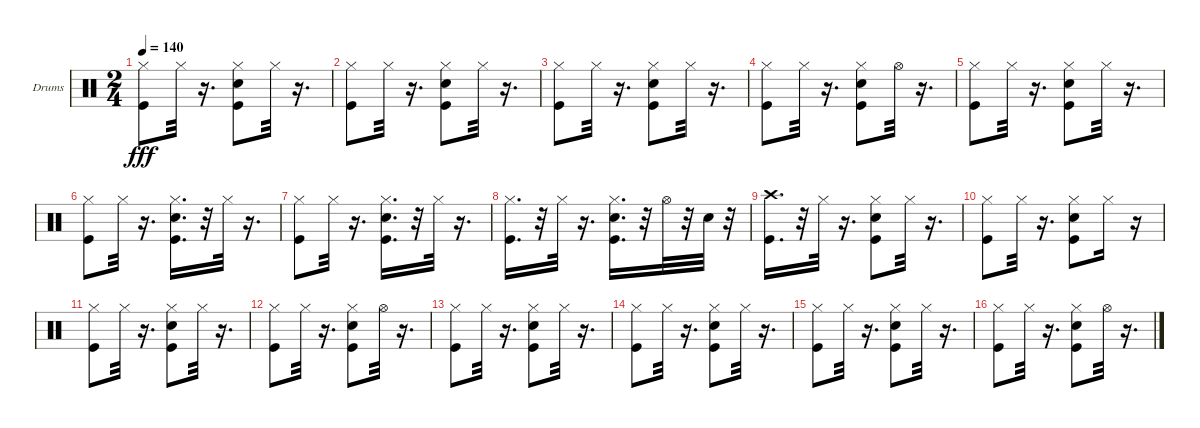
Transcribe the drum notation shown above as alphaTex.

\bracketExtendMode groupsimilarinstruments
\firstSystemTrackNameOrientation horizontal
\otherSystemsTrackNameOrientation horizontal
\track ("Ударные" "Drums") {instrument percussion}
\staff {score}
\articulation defaults
\ts (2 4)
\tempo 140
\clef neutral
\ks c
("Kick (hit)" "Hi-Hat (closed)").8{dy fff} "Hi-Hat (closed)".32 r.16{d} ("Snare (hit) 2" "Kick (hit)" "Hi-Hat (closed)").8 "Hi-Hat (closed)".32 r.16{d} |
("Kick (hit)" "Hi-Hat (closed)").8 "Hi-Hat (closed)".32 r.16{d} ("Snare (hit) 2" "Kick (hit)" "Hi-Hat (closed)").8 "Hi-Hat (closed)".32 r.16{d} |
("Kick (hit)" "Hi-Hat (closed)").8 "Hi-Hat (closed)".32 r.16{d} ("Hi-Hat (closed)" "Snare (hit) 2" "Kick (hit)").8 "Hi-Hat (closed)".32 r.16{d} |
("Kick (hit)" "Hi-Hat (closed)").8 "Hi-Hat (closed)".32 r.16{d} ("Snare (hit) 2" "Kick (hit)" "Hi-Hat (closed)").8 "Hi-Hat (open)".32 r.16{d} |
("Kick (hit)" "Hi-Hat (closed)").8 "Hi-Hat (closed)".32 r.16{d} ("Kick (hit)" "Hi-Hat (closed)" "Snare (hit) 2").8 "Hi-Hat (closed)".32 r.16{d} |
("Kick (hit)" "Hi-Hat (closed)").8 "Hi-Hat (closed)".32 r.16{d} ("Snare (hit) 2" "Kick (hit)" "Hi-Hat (closed)").16{d} r.32 "Hi-Hat (closed)".32 r.16{d} |
("Kick (hit)" "Hi-Hat (closed)").8 "Hi-Hat (closed)".32 r.16{d} ("Snare (hit) 2" "Kick (hit)" "Hi-Hat (closed)").16{d} r.32 "Hi-Hat (closed)".32 r.16{d} |
("Kick (hit)" "Hi-Hat (closed)").16{d} r.32 "Hi-Hat (closed)".32 r.16{d} ("Hi-Hat (closed)" "Snare (hit) 2" "Kick (hit)").16{d} r.32 "Hi-Hat (open)".32 r.32 "Snare (hit) 2".32 r.32 |
("Kick (hit)" "Crash high (hit)").16{d} r.32 "Hi-Hat (closed)".32 r.16{d} ("Hi-Hat (closed)" "Kick (hit)" "Snare (hit) 2").8 "Hi-Hat (closed)".32 r.16{d} |
("Kick (hit)" "Hi-Hat (closed)").8 "Hi-Hat (closed)".32 r.16{d} ("Snare (hit) 2" "Kick (hit)" "Hi-Hat (closed)").8 "Hi-Hat (closed)".16 r.16 |
("Kick (hit)" "Hi-Hat (closed)").8 "Hi-Hat (closed)".32 r.16{d} ("Hi-Hat (closed)" "Snare (hit) 2" "Kick (hit)").8 "Hi-Hat (closed)".32 r.16{d} |
("Kick (hit)" "Hi-Hat (closed)").8 "Hi-Hat (closed)".32 r.16{d} ("Snare (hit) 2" "Hi-Hat (closed)" "Kick (hit)").8 "Hi-Hat (open)".32 r.16{d} |
("Kick (hit)" "Hi-Hat (closed)").8 "Hi-Hat (closed)".32 r.16{d} ("Snare (hit) 2" "Kick (hit)" "Hi-Hat (closed)").8 "Hi-Hat (closed)".32 r.16{d} |
("Kick (hit)" "Hi-Hat (closed)").8 "Hi-Hat (closed)".32 r.16{d} ("Kick (hit)" "Hi-Hat (closed)" "Snare (hit) 2").8 "Hi-Hat (closed)".32 r.16{d} |
("Kick (hit)" "Hi-Hat (closed)").8 "Hi-Hat (closed)".32 r.16{d} ("Hi-Hat (closed)" "Snare (hit) 2" "Kick (hit)").8 "Hi-Hat (closed)".32 r.16{d} |
("Kick (hit)" "Hi-Hat (closed)").8 "Hi-Hat (closed)".32 r.16{d} ("Snare (hit) 2" "Kick (hit)" "Hi-Hat (closed)").8 "Hi-Hat (open)".32 r.16{d}
